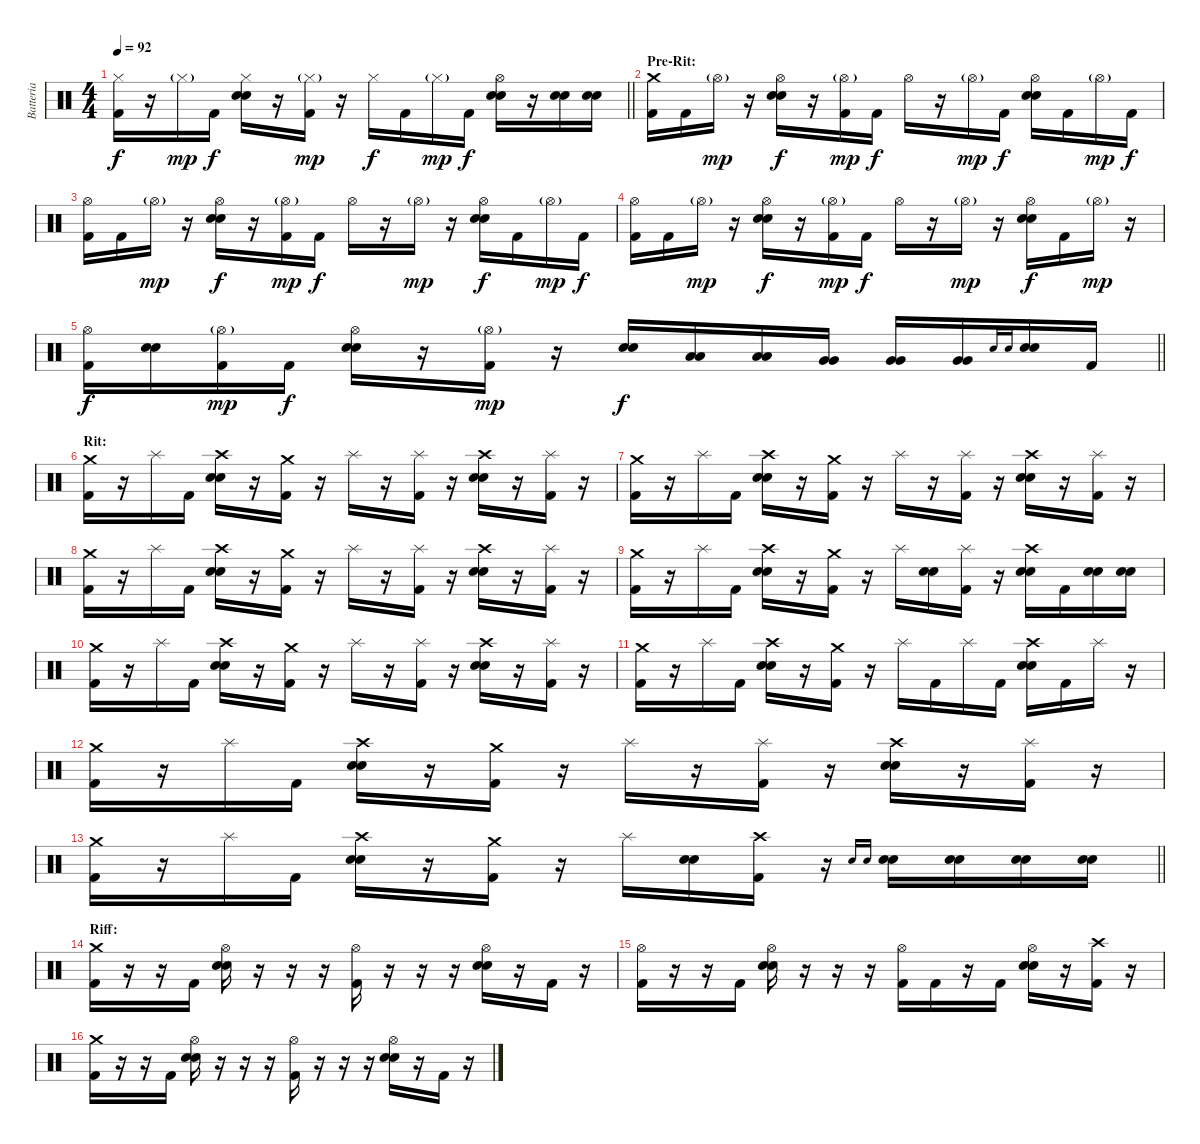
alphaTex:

\track ("Batteria" "Batteria") {instrument percussion}
\staff {score}
\articulation defaults
\ts (4 4)
\tempo 92
\clef neutral
\barLineRight lightlight
\ks c
("Kick (hit) 2" "Hi-Hat (closed)").16{dy f} r.16 "Hi-Hat (closed)"{g}.16{dy mp} "Kick (hit) 2".16{dy f} ("Snare (hit) 2" "Snare (hit) 2" "Hi-Hat (closed)").16 r.16 ("Kick (hit) 2" "Hi-Hat (closed)"{g}).16{dy mp} r.16 "Hi-Hat (closed)".16{dy f} "Kick (hit) 2".16 "Hi-Hat (closed)"{g}.16{dy mp} "Kick (hit) 2".16{dy f} ("Snare (hit) 2" "Snare (hit) 2" "Hi-Hat (open)").16 r.16 ("Snare (hit) 2" "Snare (hit) 2").16 ("Snare (hit) 2" "Snare (hit) 2").16 |
\section ("" "Pre-Rit:")
("Kick (hit) 2" "Crash medium (hit)").16 "Kick (hit) 2".16 "Hi-Hat (open)"{g}.16{dy mp} r.16 ("Snare (hit) 2" "Snare (hit) 2" "Hi-Hat (open)").16{dy f} r.16 ("Kick (hit) 2" "Hi-Hat (open)"{g}).16{dy mp} "Kick (hit) 2".16{dy f} "Hi-Hat (open)".16 r.16 "Hi-Hat (open)"{g}.16{dy mp} "Kick (hit) 2".16{dy f} ("Snare (hit) 2" "Snare (hit) 2" "Hi-Hat (open)").16 "Kick (hit) 2".16 "Hi-Hat (open)"{g}.16{dy mp} "Kick (hit) 2".16{dy f} |
("Kick (hit) 2" "Hi-Hat (open)").16 "Kick (hit) 2".16 "Hi-Hat (open)"{g}.16{dy mp} r.16 ("Snare (hit) 2" "Snare (hit) 2" "Hi-Hat (open)").16{dy f} r.16 ("Kick (hit) 2" "Hi-Hat (open)"{g}).16{dy mp} "Kick (hit) 2".16{dy f} "Hi-Hat (open)".16 r.16 "Hi-Hat (open)"{g}.16{dy mp} r.16 ("Snare (hit) 2" "Snare (hit) 2" "Hi-Hat (open)").16{dy f} "Kick (hit) 2".16 "Hi-Hat (open)"{g}.16{dy mp} "Kick (hit) 2".16{dy f} |
("Kick (hit) 2" "Hi-Hat (open)").16 "Kick (hit) 2".16 "Hi-Hat (open)"{g}.16{dy mp} r.16 ("Snare (hit) 2" "Snare (hit) 2" "Hi-Hat (open)").16{dy f} r.16 ("Kick (hit) 2" "Hi-Hat (open)"{g}).16{dy mp} "Kick (hit) 2".16{dy f} "Hi-Hat (open)".16 r.16 "Hi-Hat (open)"{g}.16{dy mp} r.16 ("Snare (hit) 2" "Snare (hit) 2" "Hi-Hat (open)").16{dy f} "Kick (hit) 2".16 "Hi-Hat (open)"{g}.16{dy mp} r.16 |
\barLineRight lightlight
("Kick (hit) 2" "Hi-Hat (open)").16{dy f} ("Snare (hit) 2" "Snare (hit) 2").16 ("Kick (hit) 2" "Hi-Hat (open)"{g}).16{dy mp} "Kick (hit) 2".16{dy f} ("Snare (hit) 2" "Snare (hit) 2" "Hi-Hat (open)").16 r.16 ("Kick (hit) 2" "Hi-Hat (open)"{g}).16{dy mp} r.16 ("Snare (hit) 2" "Snare (hit) 2").16{dy f} ("Low Tom (hit)" "Low Tom (hit)").16 ("Low Tom (hit)" "Low Tom (hit)").16 ("Very Low Tom (hit)" "Very Low Tom (hit)").16 ("Very Low Tom (hit)" "Very Low Tom (hit)").16 ("Very Low Tom (hit)" "Very Low Tom (hit)").16 "Snare (hit) 2".16{gr onbeat} "Snare (hit) 2".16{gr onbeat} ("Snare (hit) 2" "Snare (hit) 2").16 "Kick (hit) 2".16 |
\section ("" "Rit:")
("Kick (hit) 2" "Crash medium (hit)").16 r.16 "Splash (hit)".16 "Kick (hit) 2".16 ("Snare (hit) 2" "Snare (hit) 2" "Crash high (hit)").16 r.16 ("Kick (hit) 2" "Crash medium (hit)").16 r.16 "Splash (hit)".16 r.16 ("Kick (hit) 2" "Splash (hit)").16 r.16 ("Snare (hit) 2" "Snare (hit) 2" "Crash high (hit)").16 r.16 ("Kick (hit) 2" "Splash (hit)").16 r.16 |
("Kick (hit) 2" "Crash medium (hit)").16 r.16 "Splash (hit)".16 "Kick (hit) 2".16 ("Snare (hit) 2" "Snare (hit) 2" "Crash high (hit)").16 r.16 ("Kick (hit) 2" "Crash medium (hit)").16 r.16 "Splash (hit)".16 r.16 ("Kick (hit) 2" "Splash (hit)").16 r.16 ("Snare (hit) 2" "Snare (hit) 2" "Crash high (hit)").16 r.16 ("Kick (hit) 2" "Splash (hit)").16 r.16 |
("Kick (hit) 2" "Crash medium (hit)").16 r.16 "Splash (hit)".16 "Kick (hit) 2".16 ("Snare (hit) 2" "Snare (hit) 2" "Crash high (hit)").16 r.16 ("Kick (hit) 2" "Crash medium (hit)").16 r.16 "Splash (hit)".16 r.16 ("Kick (hit) 2" "Splash (hit)").16 r.16 ("Snare (hit) 2" "Snare (hit) 2" "Crash high (hit)").16 r.16 ("Kick (hit) 2" "Splash (hit)").16 r.16 |
("Kick (hit) 2" "Crash medium (hit)").16 r.16 "Splash (hit)".16 "Kick (hit) 2".16 ("Snare (hit) 2" "Snare (hit) 2" "Crash high (hit)").16 r.16 ("Kick (hit) 2" "Crash medium (hit)").16 r.16 "Splash (hit)".16 ("Snare (hit) 2" "Snare (hit) 2").16 ("Kick (hit) 2" "Splash (hit)").16 r.16 ("Snare (hit) 2" "Snare (hit) 2" "Crash high (hit)").16 "Kick (hit) 2".16 ("Snare (hit) 2" "Snare (hit) 2").16 ("Snare (hit) 2" "Snare (hit) 2").16 |
("Kick (hit) 2" "Crash medium (hit)").16 r.16 "Splash (hit)".16 "Kick (hit) 2".16 ("Snare (hit) 2" "Snare (hit) 2" "Crash high (hit)").16 r.16 ("Kick (hit) 2" "Crash medium (hit)").16 r.16 "Splash (hit)".16 r.16 ("Kick (hit) 2" "Splash (hit)").16 r.16 ("Snare (hit) 2" "Snare (hit) 2" "Crash high (hit)").16 r.16 ("Kick (hit) 2" "Splash (hit)").16 r.16 |
("Kick (hit) 2" "Crash medium (hit)").16 r.16 "Splash (hit)".16 "Kick (hit) 2".16 ("Snare (hit) 2" "Snare (hit) 2" "Crash high (hit)").16 r.16 ("Kick (hit) 2" "Crash medium (hit)").16 r.16 "Splash (hit)".16 "Kick (hit) 2".16 "Splash (hit)".16 "Kick (hit) 2".16 ("Snare (hit) 2" "Snare (hit) 2" "Crash high (hit)").16 "Kick (hit) 2".16 "Splash (hit)".16 r.16 |
("Kick (hit) 2" "Crash medium (hit)").16 r.16 "Splash (hit)".16 "Kick (hit) 2".16 ("Snare (hit) 2" "Snare (hit) 2" "Crash high (hit)").16 r.16 ("Kick (hit) 2" "Crash medium (hit)").16 r.16 "Splash (hit)".16 r.16 ("Kick (hit) 2" "Splash (hit)").16 r.16 ("Snare (hit) 2" "Snare (hit) 2" "Crash high (hit)").16 r.16 ("Kick (hit) 2" "Splash (hit)").16 r.16 |
\barLineRight lightlight
("Kick (hit) 2" "Crash medium (hit)").16 r.16 "Splash (hit)".16 "Kick (hit) 2".16 ("Snare (hit) 2" "Snare (hit) 2" "Crash high (hit)").16 r.16 ("Kick (hit) 2" "Crash medium (hit)").16 r.16 "Splash (hit)".16 ("Snare (hit) 2" "Snare (hit) 2").16 ("Kick (hit) 2" "Crash high (hit)").16 r.16 "Snare (hit) 2".16{gr onbeat} "Snare (hit) 2".16{gr onbeat} ("Snare (hit) 2" "Snare (hit) 2").16 ("Snare (hit) 2" "Snare (hit) 2").16 ("Snare (hit) 2" "Snare (hit) 2").16 ("Snare (hit) 2" "Snare (hit) 2").16 |
\section ("" "Riff:")
("Kick (hit) 2" "Crash medium (hit)").16 r.16 r.16 "Kick (hit) 2".16 ("Snare (hit) 2" "Snare (hit) 2" "Hi-Hat (open)").16 r.16 r.16 r.16 ("Kick (hit) 2" "Hi-Hat (open)").16 r.16 r.16 r.16 ("Snare (hit) 2" "Snare (hit) 2" "Hi-Hat (open)").16 r.16 "Kick (hit) 2".16 r.16 |
("Kick (hit) 2" "Hi-Hat (open)").16 r.16 r.16 "Kick (hit) 2".16 ("Snare (hit) 2" "Snare (hit) 2" "Hi-Hat (open)").16 r.16 r.16 r.16 ("Kick (hit) 2" "Hi-Hat (open)").16 "Kick (hit) 2".16 r.16 "Kick (hit) 2".16 ("Snare (hit) 2" "Snare (hit) 2" "Hi-Hat (open)").16 r.16 ("Kick (hit) 2" "Crash high (hit)").16 r.16 |
("Kick (hit) 2" "Crash medium (hit)").16 r.16 r.16 "Kick (hit) 2".16 ("Snare (hit) 2" "Snare (hit) 2" "Hi-Hat (open)").16 r.16 r.16 r.16 ("Kick (hit) 2" "Hi-Hat (open)").16 r.16 r.16 r.16 ("Snare (hit) 2" "Snare (hit) 2" "Hi-Hat (open)").16 r.16 "Kick (hit) 2".16 r.16
